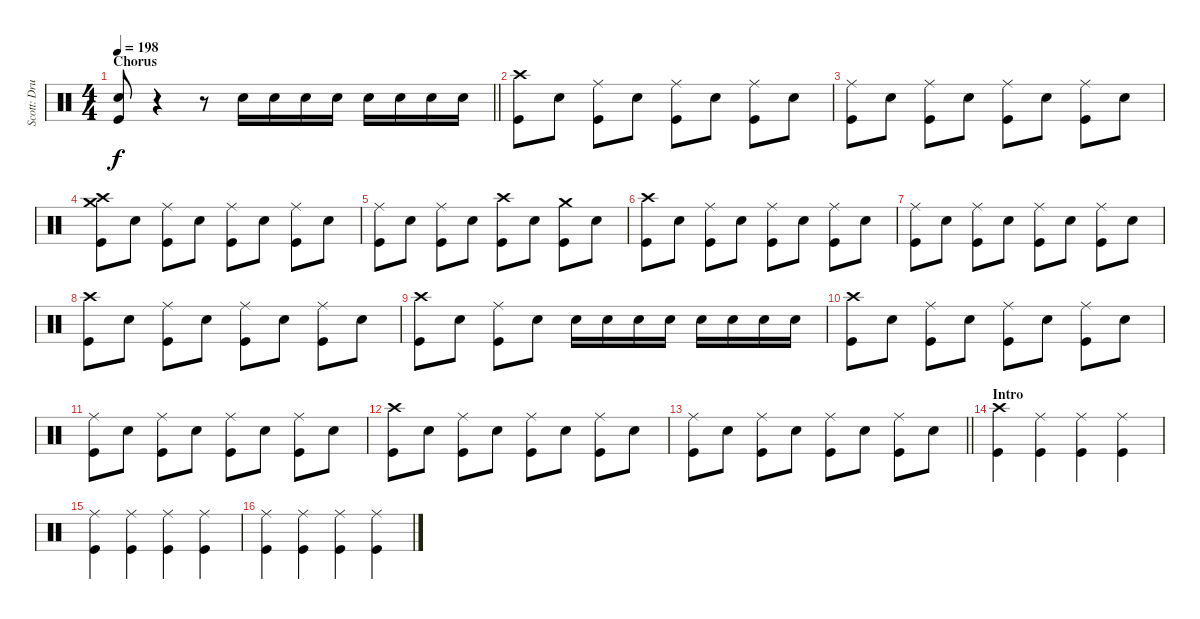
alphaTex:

\track ("Scott: Drums" "Scott: Dru") {instrument percussion}
\staff {score}
\articulation defaults
\ts (4 4)
\section ("" "Chorus")
\tempo 198
\clef neutral
\barLineRight lightlight
\ks c
("Electric Snare (hit)" "Kick (hit)").8{dy f} r.4 r.8 "Electric Snare (hit)".16 "Electric Snare (hit)".16 "Electric Snare (hit)".16 "Electric Snare (hit)".16 "Electric Snare (hit)".16 "Electric Snare (hit)".16 "Electric Snare (hit)".16 "Electric Snare (hit)".16 |
\section ("" "")
("Crash high (hit)" "Kick (hit)").8 "Electric Snare (hit)".8 ("Ride (middle)" "Kick (hit)").8 "Electric Snare (hit)".8 ("Ride (middle)" "Kick (hit)").8 "Electric Snare (hit)".8 ("Ride (middle)" "Kick (hit)").8 "Electric Snare (hit)".8 |
("Ride (middle)" "Kick (hit)").8 "Electric Snare (hit)".8 ("Ride (middle)" "Kick (hit)").8 "Electric Snare (hit)".8 ("Ride (middle)" "Kick (hit)").8 "Electric Snare (hit)".8 ("Ride (middle)" "Kick (hit)").8 "Electric Snare (hit)".8 |
("Crash high (hit)" "Crash medium (hit)" "Kick (hit)").8 "Electric Snare (hit)".8 ("Ride (middle)" "Kick (hit)").8 "Electric Snare (hit)".8 ("Ride (middle)" "Kick (hit)").8 "Electric Snare (hit)".8 ("Ride (middle)" "Kick (hit)").8 "Electric Snare (hit)".8 |
("Ride (middle)" "Kick (hit)").8 "Electric Snare (hit)".8 ("Ride (middle)" "Kick (hit)").8 "Electric Snare (hit)".8 ("Crash high (hit)" "Kick (hit)").8 "Electric Snare (hit)".8 ("Crash medium (hit)" "Kick (hit)").8 "Electric Snare (hit)".8 |
("Crash high (hit)" "Kick (hit)").8 "Electric Snare (hit)".8 ("Ride (middle)" "Kick (hit)").8 "Electric Snare (hit)".8 ("Ride (middle)" "Kick (hit)").8 "Electric Snare (hit)".8 ("Ride (middle)" "Kick (hit)").8 "Electric Snare (hit)".8 |
("Ride (middle)" "Kick (hit)").8 "Electric Snare (hit)".8 ("Ride (middle)" "Kick (hit)").8 "Electric Snare (hit)".8 ("Ride (middle)" "Kick (hit)").8 "Electric Snare (hit)".8 ("Ride (middle)" "Kick (hit)").8 "Electric Snare (hit)".8 |
("Crash high (hit)" "Kick (hit)").8 "Electric Snare (hit)".8 ("Ride (middle)" "Kick (hit)").8 "Electric Snare (hit)".8 ("Ride (middle)" "Kick (hit)").8 "Electric Snare (hit)".8 ("Ride (middle)" "Kick (hit)").8 "Electric Snare (hit)".8 |
("Crash high (hit)" "Kick (hit)").8 "Electric Snare (hit)".8 ("Ride (middle)" "Kick (hit)").8 "Electric Snare (hit)".8 "Electric Snare (hit)".16 "Electric Snare (hit)".16 "Electric Snare (hit)".16 "Electric Snare (hit)".16 "Electric Snare (hit)".16 "Electric Snare (hit)".16 "Electric Snare (hit)".16 "Electric Snare (hit)".16 |
("Crash high (hit)" "Kick (hit)").8 "Electric Snare (hit)".8 ("Ride (middle)" "Kick (hit)").8 "Electric Snare (hit)".8 ("Ride (middle)" "Kick (hit)").8 "Electric Snare (hit)".8 ("Ride (middle)" "Kick (hit)").8 "Electric Snare (hit)".8 |
("Ride (middle)" "Kick (hit)").8 "Electric Snare (hit)".8 ("Ride (middle)" "Kick (hit)").8 "Electric Snare (hit)".8 ("Ride (middle)" "Kick (hit)").8 "Electric Snare (hit)".8 ("Ride (middle)" "Kick (hit)").8 "Electric Snare (hit)".8 |
("Crash high (hit)" "Kick (hit)").8 "Electric Snare (hit)".8 ("Ride (middle)" "Kick (hit)").8 "Electric Snare (hit)".8 ("Ride (middle)" "Kick (hit)").8 "Electric Snare (hit)".8 ("Ride (middle)" "Kick (hit)").8 "Electric Snare (hit)".8 |
\barLineRight lightlight
("Ride (middle)" "Kick (hit)").8 "Electric Snare (hit)".8 ("Ride (middle)" "Kick (hit)").8 "Electric Snare (hit)".8 ("Ride (middle)" "Kick (hit)").8 "Electric Snare (hit)".8 ("Ride (middle)" "Kick (hit)").8 "Electric Snare (hit)".8 |
\section ("" "Intro")
("Crash high (hit)" "Kick (hit)").4 ("Ride (middle)" "Kick (hit)").4 ("Ride (middle)" "Kick (hit)").4 ("Ride (middle)" "Kick (hit)").4 |
("Ride (middle)" "Kick (hit)").4 ("Ride (middle)" "Kick (hit)").4 ("Ride (middle)" "Kick (hit)").4 ("Ride (middle)" "Kick (hit)").4 |
("Ride (middle)" "Kick (hit)").4 ("Ride (middle)" "Kick (hit)").4 ("Ride (middle)" "Kick (hit)").4 ("Ride (middle)" "Kick (hit)").4
